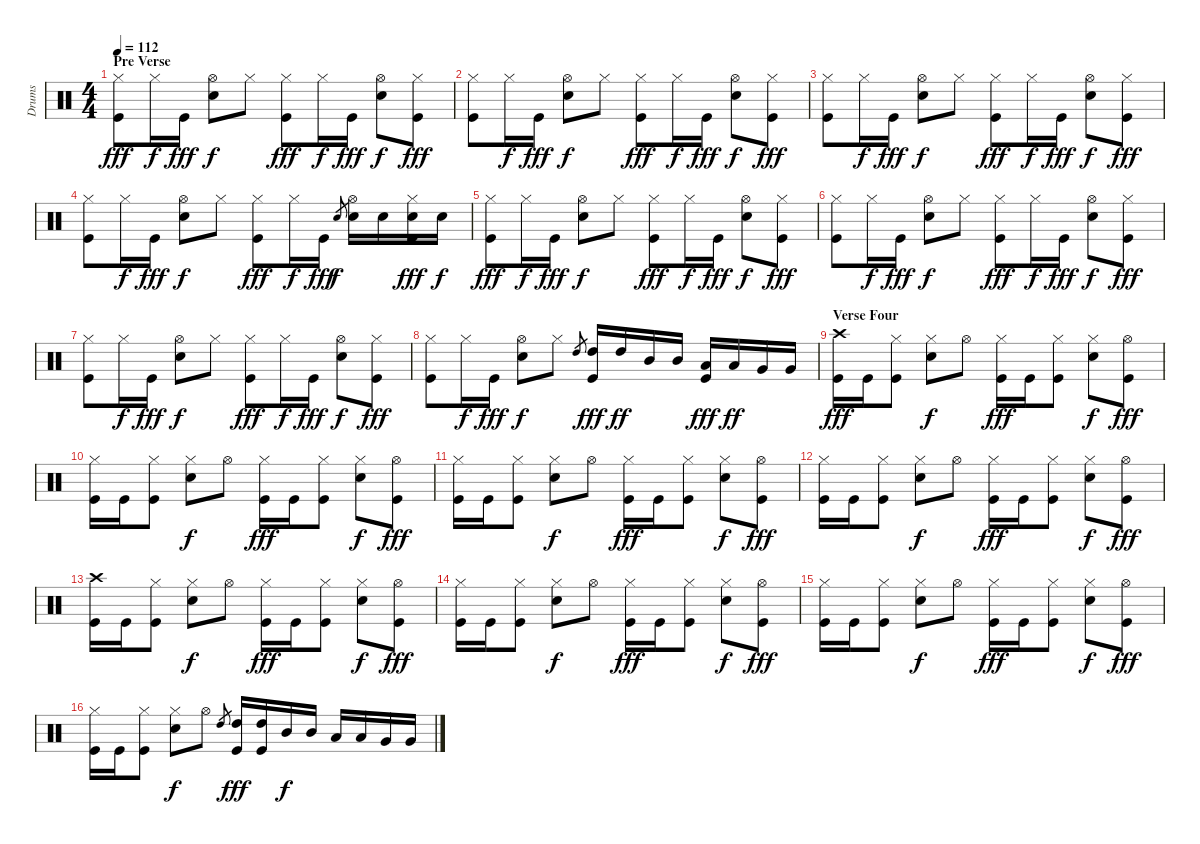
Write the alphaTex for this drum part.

\track ("Drums" "Drums") {instrument percussion}
\staff {score}
\articulation defaults
\ts (4 4)
\section ("" "Pre Verse")
\tempo 112
\clef neutral
\ks c
("Hi-Hat (closed)" "Kick (hit)").8{dy fff} "Hi-Hat (closed)".16{dy f} "Kick (hit)".16{dy fff} ("Hi-Hat (open)" "Snare (hit) 2").8{dy f} "Hi-Hat (closed)".8 ("Hi-Hat (closed)" "Kick (hit)").8{dy fff} "Hi-Hat (closed)".16{dy f} "Kick (hit)".16{dy fff} ("Hi-Hat (open)" "Snare (hit) 2").8{dy f} ("Hi-Hat (closed)" "Kick (hit)").8{dy fff} |
("Hi-Hat (closed)" "Kick (hit)").8 "Hi-Hat (closed)".16{dy f} "Kick (hit)".16{dy fff} ("Hi-Hat (open)" "Snare (hit) 2").8{dy f} "Hi-Hat (closed)".8 ("Hi-Hat (closed)" "Kick (hit)").8{dy fff} "Hi-Hat (closed)".16{dy f} "Kick (hit)".16{dy fff} ("Hi-Hat (open)" "Snare (hit) 2").8{dy f} ("Hi-Hat (closed)" "Kick (hit)").8{dy fff} |
("Hi-Hat (closed)" "Kick (hit)").8 "Hi-Hat (closed)".16{dy f} "Kick (hit)".16{dy fff} ("Hi-Hat (open)" "Snare (hit) 2").8{dy f} "Hi-Hat (closed)".8 ("Hi-Hat (closed)" "Kick (hit)").8{dy fff} "Hi-Hat (closed)".16{dy f} "Kick (hit)".16{dy fff} ("Hi-Hat (open)" "Snare (hit) 2").8{dy f} ("Hi-Hat (closed)" "Kick (hit)").8{dy fff} |
("Hi-Hat (closed)" "Kick (hit)").8 "Hi-Hat (closed)".16{dy f} "Kick (hit)".16{dy fff} ("Hi-Hat (open)" "Snare (hit) 2").8{dy f} "Hi-Hat (closed)".8 ("Hi-Hat (closed)" "Kick (hit)").8{dy fff} "Hi-Hat (closed)".16{dy f} "Kick (hit)".16{dy fff} "Snare (hit) 2".8{gr dy f} ("Hi-Hat (open)" "Snare (hit) 2").16 "Snare (hit) 2".16 ("Hi-Hat (closed)" "Snare (hit) 2" "Kick (hit)").16{dy fff} "Snare (hit) 2".16{dy f} |
("Hi-Hat (closed)" "Kick (hit)").8{dy fff} "Hi-Hat (closed)".16{dy f} "Kick (hit)".16{dy fff} ("Hi-Hat (open)" "Snare (hit) 2").8{dy f} "Hi-Hat (closed)".8 ("Hi-Hat (closed)" "Kick (hit)").8{dy fff} "Hi-Hat (closed)".16{dy f} "Kick (hit)".16{dy fff} ("Hi-Hat (open)" "Snare (hit) 2").8{dy f} ("Hi-Hat (closed)" "Kick (hit)").8{dy fff} |
("Hi-Hat (closed)" "Kick (hit)").8 "Hi-Hat (closed)".16{dy f} "Kick (hit)".16{dy fff} ("Hi-Hat (open)" "Snare (hit) 2").8{dy f} "Hi-Hat (closed)".8 ("Hi-Hat (closed)" "Kick (hit)").8{dy fff} "Hi-Hat (closed)".16{dy f} "Kick (hit)".16{dy fff} ("Hi-Hat (open)" "Snare (hit) 2").8{dy f} ("Hi-Hat (closed)" "Kick (hit)").8{dy fff} |
("Hi-Hat (closed)" "Kick (hit)").8 "Hi-Hat (closed)".16{dy f} "Kick (hit)".16{dy fff} ("Hi-Hat (open)" "Snare (hit) 2").8{dy f} "Hi-Hat (closed)".8 ("Hi-Hat (closed)" "Kick (hit)").8{dy fff} "Hi-Hat (closed)".16{dy f} "Kick (hit)".16{dy fff} ("Hi-Hat (open)" "Snare (hit) 2").8{dy f} ("Hi-Hat (closed)" "Kick (hit)").8{dy fff} |
("Hi-Hat (closed)" "Kick (hit)").8 "Hi-Hat (closed)".16{dy f} "Kick (hit)".16{dy fff} ("Hi-Hat (open)" "Snare (hit) 2").8{dy f} "Hi-Hat (closed)".8 "High Tom (hit)".8{gr} ("High Tom (hit)" "Kick (hit)").16{dy fff} "High Tom (hit)".16{dy ff} "Mid Tom (hit)".16 "Mid Tom (hit)".16 ("Low Tom (hit)" "Kick (hit)").16{dy fff} "Low Tom (hit)".16{dy ff} "Very Low Tom (hit)".16 "Very Low Tom (hit)".16 |
\section ("" "Verse Four")
("Crash high (hit)" "Kick (hit)").16{dy fff} "Kick (hit)".16 ("Hi-Hat (closed)" "Kick (hit)").8 ("Hi-Hat (closed)" "Snare (hit) 2").8{dy f} "Hi-Hat (open)".8 ("Hi-Hat (closed)" "Kick (hit)").16{dy fff} "Kick (hit)".16 ("Hi-Hat (closed)" "Kick (hit)").8 ("Hi-Hat (closed)" "Snare (hit) 2").8{dy f} ("Hi-Hat (open)" "Kick (hit)").8{dy fff} |
("Hi-Hat (closed)" "Kick (hit)").16 "Kick (hit)".16 ("Hi-Hat (closed)" "Kick (hit)").8 ("Hi-Hat (closed)" "Snare (hit) 2").8{dy f} "Hi-Hat (open)".8 ("Hi-Hat (closed)" "Kick (hit)").16{dy fff} "Kick (hit)".16 ("Hi-Hat (closed)" "Kick (hit)").8 ("Hi-Hat (closed)" "Snare (hit) 2").8{dy f} ("Hi-Hat (open)" "Kick (hit)").8{dy fff} |
("Hi-Hat (closed)" "Kick (hit)").16 "Kick (hit)".16 ("Hi-Hat (closed)" "Kick (hit)").8 ("Hi-Hat (closed)" "Snare (hit) 2").8{dy f} "Hi-Hat (open)".8 ("Hi-Hat (closed)" "Kick (hit)").16{dy fff} "Kick (hit)".16 ("Hi-Hat (closed)" "Kick (hit)").8 ("Hi-Hat (closed)" "Snare (hit) 2").8{dy f} ("Hi-Hat (open)" "Kick (hit)").8{dy fff} |
("Hi-Hat (closed)" "Kick (hit)").16 "Kick (hit)".16 ("Hi-Hat (closed)" "Kick (hit)").8 ("Hi-Hat (closed)" "Snare (hit) 2").8{dy f} "Hi-Hat (open)".8 ("Hi-Hat (closed)" "Kick (hit)").16{dy fff} "Kick (hit)".16 ("Hi-Hat (closed)" "Kick (hit)").8 ("Hi-Hat (closed)" "Snare (hit) 2").8{dy f} ("Hi-Hat (open)" "Kick (hit)").8{dy fff} |
("Crash high (hit)" "Kick (hit)").16 "Kick (hit)".16 ("Hi-Hat (closed)" "Kick (hit)").8 ("Hi-Hat (closed)" "Snare (hit) 2").8{dy f} "Hi-Hat (open)".8 ("Hi-Hat (closed)" "Kick (hit)").16{dy fff} "Kick (hit)".16 ("Hi-Hat (closed)" "Kick (hit)").8 ("Hi-Hat (closed)" "Snare (hit) 2").8{dy f} ("Hi-Hat (open)" "Kick (hit)").8{dy fff} |
("Hi-Hat (closed)" "Kick (hit)").16 "Kick (hit)".16 ("Hi-Hat (closed)" "Kick (hit)").8 ("Hi-Hat (closed)" "Snare (hit) 2").8{dy f} "Hi-Hat (open)".8 ("Hi-Hat (closed)" "Kick (hit)").16{dy fff} "Kick (hit)".16 ("Hi-Hat (closed)" "Kick (hit)").8 ("Hi-Hat (closed)" "Snare (hit) 2").8{dy f} ("Hi-Hat (open)" "Kick (hit)").8{dy fff} |
("Hi-Hat (closed)" "Kick (hit)").16 "Kick (hit)".16 ("Hi-Hat (closed)" "Kick (hit)").8 ("Hi-Hat (closed)" "Snare (hit) 2").8{dy f} "Hi-Hat (open)".8 ("Hi-Hat (closed)" "Kick (hit)").16{dy fff} "Kick (hit)".16 ("Hi-Hat (closed)" "Kick (hit)").8 ("Hi-Hat (closed)" "Snare (hit) 2").8{dy f} ("Hi-Hat (open)" "Kick (hit)").8{dy fff} |
("Hi-Hat (closed)" "Kick (hit)").16 "Kick (hit)".16 ("Hi-Hat (closed)" "Kick (hit)").8 ("Hi-Hat (closed)" "Snare (hit) 2").8{dy f} "Hi-Hat (open)".8 "High Tom (hit)".8{gr} ("High Tom (hit)" "Kick (hit)").16{dy fff} ("High Tom (hit)" "Kick (hit)").16 "Mid Tom (hit)".16{dy f} "Mid Tom (hit)".16 "Low Tom (hit)".16 "Low Tom (hit)".16 "Very Low Tom (hit)".16 "Very Low Tom (hit)".16
